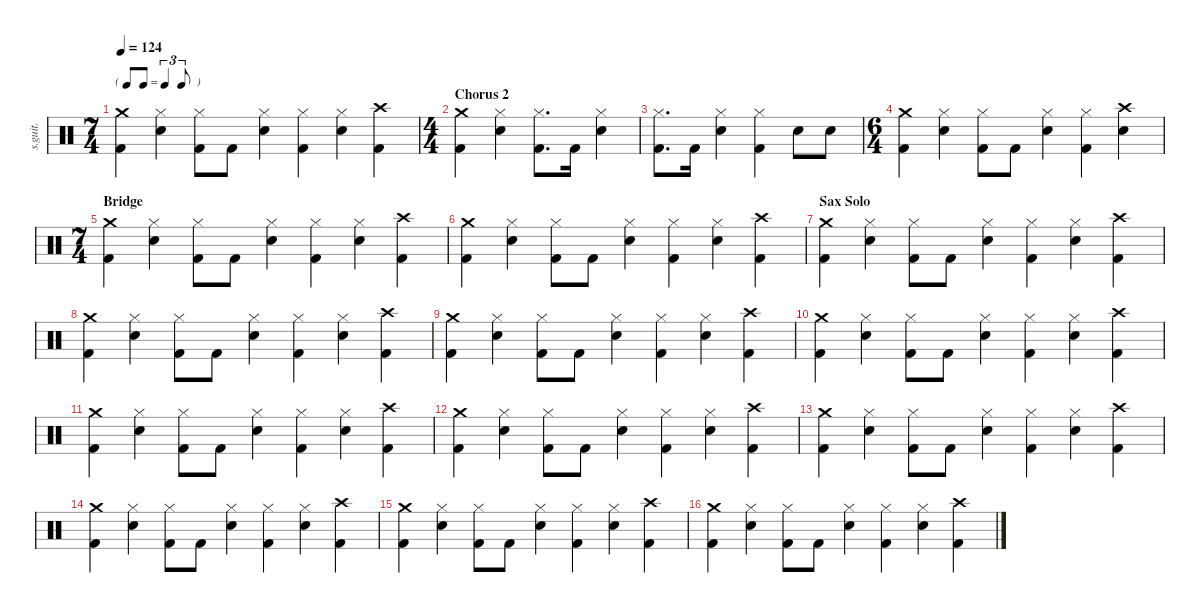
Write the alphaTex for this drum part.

\defaultSystemsLayout 4
\hideDynamics
\bracketExtendMode nobrackets
\track ("Nick Mason | Ludwig Drumkit | Drums" "s.guit.") {instrument percussion}
\staff {score}
\articulation defaults
\ts (7 4)
\tf triplet8th
\tempo 124
\clef neutral
\ks c
("Crash medium (hit)" "Kick (hit) 2").4{dy mf} ("Hi-Hat (closed)" "Snare (hit) 2").4 ("Hi-Hat (closed)" "Kick (hit) 2").8 "Kick (hit) 2".8 ("Hi-Hat (closed)" "Snare (hit) 2").4 ("Hi-Hat (closed)" "Kick (hit) 2").4 ("Hi-Hat (closed)" "Snare (hit) 2").4 ("Crash high (hit)" "Kick (hit) 2").4 |
\ts (4 4)
\beaming (8 2 2 2 2)
\section ("" "Chorus 2")
("Crash medium (hit)" "Kick (hit) 2").4 ("Hi-Hat (closed)" "Snare (hit) 2").4 ("Hi-Hat (closed)" "Kick (hit) 2").8{d} "Kick (hit) 2".16{dy f} ("Hi-Hat (closed)" "Snare (hit) 2").4{dy mf} |
("Hi-Hat (closed)" "Kick (hit) 2").8{d} "Kick (hit) 2".16{dy f} ("Hi-Hat (closed)" "Snare (hit) 2").4 ("Hi-Hat (closed)" "Kick (hit) 2").4 "Snare (hit) 2".8 "Snare (hit) 2".8 |
\ts (6 4)
\beaming (8 2 2 2 2)
("Crash medium (hit)" "Kick (hit) 2").4 ("Hi-Hat (closed)" "Snare (hit) 2").4{dy mf} ("Hi-Hat (closed)" "Kick (hit) 2").8 "Kick (hit) 2".8 ("Hi-Hat (closed)" "Snare (hit) 2").4 ("Hi-Hat (closed)" "Kick (hit) 2").4 ("Crash high (hit)" "Snare (hit) 2").4 |
\ts (7 4)
\beaming (8 2 2 2 2)
\section ("" "Bridge")
("Crash medium (hit)" "Kick (hit) 2").4 ("Hi-Hat (closed)" "Snare (hit) 2").4 ("Hi-Hat (closed)" "Kick (hit) 2").8 "Kick (hit) 2".8 ("Hi-Hat (closed)" "Snare (hit) 2").4 ("Hi-Hat (closed)" "Kick (hit) 2").4 ("Hi-Hat (closed)" "Snare (hit) 2").4 ("Crash high (hit)" "Kick (hit) 2").4 |
("Crash medium (hit)" "Kick (hit) 2").4 ("Hi-Hat (closed)" "Snare (hit) 2").4 ("Hi-Hat (closed)" "Kick (hit) 2").8 "Kick (hit) 2".8 ("Hi-Hat (closed)" "Snare (hit) 2").4 ("Hi-Hat (closed)" "Kick (hit) 2").4 ("Hi-Hat (closed)" "Snare (hit) 2").4 ("Crash high (hit)" "Kick (hit) 2").4 |
\section ("" "Sax Solo")
("Crash medium (hit)" "Kick (hit) 2").4 ("Hi-Hat (closed)" "Snare (hit) 2").4 ("Hi-Hat (closed)" "Kick (hit) 2").8 "Kick (hit) 2".8 ("Hi-Hat (closed)" "Snare (hit) 2").4 ("Hi-Hat (closed)" "Kick (hit) 2").4 ("Hi-Hat (closed)" "Snare (hit) 2").4 ("Crash high (hit)" "Kick (hit) 2").4 |
("Crash medium (hit)" "Kick (hit) 2").4 ("Hi-Hat (closed)" "Snare (hit) 2").4 ("Hi-Hat (closed)" "Kick (hit) 2").8 "Kick (hit) 2".8 ("Hi-Hat (closed)" "Snare (hit) 2").4 ("Hi-Hat (closed)" "Kick (hit) 2").4 ("Hi-Hat (closed)" "Snare (hit) 2").4 ("Crash high (hit)" "Kick (hit) 2").4 |
("Crash medium (hit)" "Kick (hit) 2").4 ("Hi-Hat (closed)" "Snare (hit) 2").4 ("Hi-Hat (closed)" "Kick (hit) 2").8 "Kick (hit) 2".8 ("Hi-Hat (closed)" "Snare (hit) 2").4 ("Hi-Hat (closed)" "Kick (hit) 2").4 ("Hi-Hat (closed)" "Snare (hit) 2").4 ("Crash high (hit)" "Kick (hit) 2").4 |
("Crash medium (hit)" "Kick (hit) 2").4 ("Hi-Hat (closed)" "Snare (hit) 2").4 ("Hi-Hat (closed)" "Kick (hit) 2").8 "Kick (hit) 2".8 ("Hi-Hat (closed)" "Snare (hit) 2").4 ("Hi-Hat (closed)" "Kick (hit) 2").4 ("Hi-Hat (closed)" "Snare (hit) 2").4 ("Crash high (hit)" "Kick (hit) 2").4 |
("Crash medium (hit)" "Kick (hit) 2").4 ("Hi-Hat (closed)" "Snare (hit) 2").4 ("Hi-Hat (closed)" "Kick (hit) 2").8 "Kick (hit) 2".8 ("Hi-Hat (closed)" "Snare (hit) 2").4 ("Hi-Hat (closed)" "Kick (hit) 2").4 ("Hi-Hat (closed)" "Snare (hit) 2").4 ("Crash high (hit)" "Kick (hit) 2").4 |
("Crash medium (hit)" "Kick (hit) 2").4 ("Hi-Hat (closed)" "Snare (hit) 2").4 ("Hi-Hat (closed)" "Kick (hit) 2").8 "Kick (hit) 2".8 ("Hi-Hat (closed)" "Snare (hit) 2").4 ("Hi-Hat (closed)" "Kick (hit) 2").4 ("Hi-Hat (closed)" "Snare (hit) 2").4 ("Crash high (hit)" "Kick (hit) 2").4 |
("Crash medium (hit)" "Kick (hit) 2").4 ("Hi-Hat (closed)" "Snare (hit) 2").4 ("Hi-Hat (closed)" "Kick (hit) 2").8 "Kick (hit) 2".8 ("Hi-Hat (closed)" "Snare (hit) 2").4 ("Hi-Hat (closed)" "Kick (hit) 2").4 ("Hi-Hat (closed)" "Snare (hit) 2").4 ("Crash high (hit)" "Kick (hit) 2").4 |
("Crash medium (hit)" "Kick (hit) 2").4 ("Hi-Hat (closed)" "Snare (hit) 2").4 ("Hi-Hat (closed)" "Kick (hit) 2").8 "Kick (hit) 2".8 ("Hi-Hat (closed)" "Snare (hit) 2").4 ("Hi-Hat (closed)" "Kick (hit) 2").4 ("Hi-Hat (closed)" "Snare (hit) 2").4 ("Crash high (hit)" "Kick (hit) 2").4 |
("Crash medium (hit)" "Kick (hit) 2").4 ("Hi-Hat (closed)" "Snare (hit) 2").4 ("Hi-Hat (closed)" "Kick (hit) 2").8 "Kick (hit) 2".8 ("Hi-Hat (closed)" "Snare (hit) 2").4 ("Hi-Hat (closed)" "Kick (hit) 2").4 ("Hi-Hat (closed)" "Snare (hit) 2").4 ("Crash high (hit)" "Kick (hit) 2").4 |
("Crash medium (hit)" "Kick (hit) 2").4 ("Hi-Hat (closed)" "Snare (hit) 2").4 ("Hi-Hat (closed)" "Kick (hit) 2").8 "Kick (hit) 2".8 ("Hi-Hat (closed)" "Snare (hit) 2").4 ("Hi-Hat (closed)" "Kick (hit) 2").4 ("Hi-Hat (closed)" "Snare (hit) 2").4 ("Crash high (hit)" "Kick (hit) 2").4
